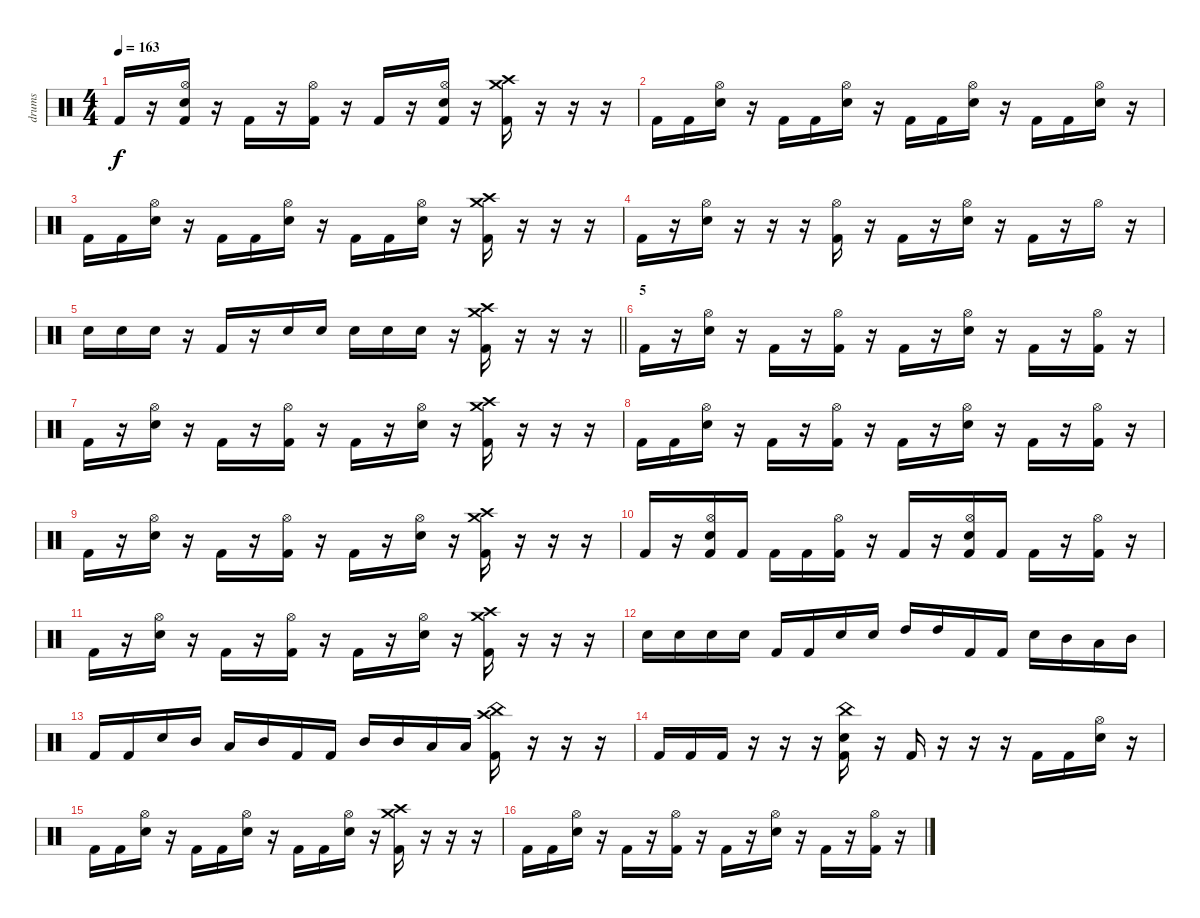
\track ("drums" "drums") {instrument percussion}
\staff {score}
\articulation defaults
\ts (4 4)
\tempo 163
\clef neutral
\ks c "Kick (hit) 2".16{dy f}
r.16 ("Hi-Hat (open)" "Electric Snare (hit)" "Kick (hit) 2").16 r.16 "Kick (hit) 2".16 r.16 ("Hi-Hat (open)" "Kick (hit) 2").16 r.16 "Kick (hit) 2".16 r.16 ("Hi-Hat (open)" "Electric Snare (hit)" "Kick (hit) 2").16 r.16 ("Crash medium (hit)" "Crash high (hit)" "Kick (hit) 2").16 r.16 r.16 r.16 |
"Kick (hit) 2".16 "Kick (hit) 2".16 ("Hi-Hat (open)" "Electric Snare (hit)").16 r.16 "Kick (hit) 2".16 "Kick (hit) 2".16 ("Hi-Hat (open)" "Electric Snare (hit)").16 r.16 "Kick (hit) 2".16 "Kick (hit) 2".16 ("Hi-Hat (open)" "Electric Snare (hit)").16 r.16 "Kick (hit) 2".16 "Kick (hit) 2".16 ("Hi-Hat (open)" "Electric Snare (hit)").16 r.16 |
"Kick (hit) 2".16 "Kick (hit) 2".16 ("Hi-Hat (open)" "Electric Snare (hit)").16 r.16 "Kick (hit) 2".16 "Kick (hit) 2".16 ("Hi-Hat (open)" "Electric Snare (hit)").16 r.16 "Kick (hit) 2".16 "Kick (hit) 2".16 ("Hi-Hat (open)" "Electric Snare (hit)").16 r.16 ("Crash medium (hit)" "Crash high (hit)" "Kick (hit) 2").16 r.16 r.16 r.16 |
"Kick (hit) 2".16 r.16 ("Hi-Hat (open)" "Electric Snare (hit)").16 r.16 r.16 r.16 ("Hi-Hat (open)" "Kick (hit) 2").16 r.16 "Kick (hit) 2".16 r.16 ("Hi-Hat (open)" "Electric Snare (hit)").16 r.16 "Kick (hit) 2".16 r.16 "Hi-Hat (open)".16 r.16 |
\barLineRight lightlight "Electric Snare (hit)".16 "Electric Snare (hit)".16 "Electric Snare (hit)".16
r.16 "Kick (hit) 2".16 r.16 "Electric Snare (hit)".16 "Electric Snare (hit)".16 "Electric Snare (hit)".16 "Electric Snare (hit)".16 "Electric Snare (hit)".16 r.16 ("Crash medium (hit)" "Crash high (hit)" "Kick (hit) 2").16 r.16 r.16 r.16 |
\section ("" "5")
"Kick (hit) 2".16 r.16 ("Hi-Hat (open)" "Electric Snare (hit)").16 r.16 "Kick (hit) 2".16 r.16 ("Hi-Hat (open)" "Kick (hit) 2").16 r.16 "Kick (hit) 2".16 r.16 ("Hi-Hat (open)" "Electric Snare (hit)").16 r.16 "Kick (hit) 2".16 r.16 ("Hi-Hat (open)" "Kick (hit) 2").16 r.16 |
"Kick (hit) 2".16 r.16 ("Hi-Hat (open)" "Electric Snare (hit)").16 r.16 "Kick (hit) 2".16 r.16 ("Hi-Hat (open)" "Kick (hit) 2").16 r.16 "Kick (hit) 2".16 r.16 ("Hi-Hat (open)" "Electric Snare (hit)").16 r.16 ("Crash medium (hit)" "Crash high (hit)" "Kick (hit) 2").16 r.16 r.16 r.16 |
"Kick (hit) 2".16 "Kick (hit) 2".16 ("Hi-Hat (open)" "Electric Snare (hit)").16 r.16 "Kick (hit) 2".16 r.16 ("Hi-Hat (open)" "Kick (hit) 2").16 r.16 "Kick (hit) 2".16 r.16 ("Hi-Hat (open)" "Electric Snare (hit)").16 r.16 "Kick (hit) 2".16 r.16 ("Hi-Hat (open)" "Kick (hit) 2").16 r.16 |
"Kick (hit) 2".16 r.16 ("Hi-Hat (open)" "Electric Snare (hit)").16 r.16 "Kick (hit) 2".16 r.16 ("Hi-Hat (open)" "Kick (hit) 2").16 r.16 "Kick (hit) 2".16 r.16 ("Hi-Hat (open)" "Electric Snare (hit)").16 r.16 ("Crash medium (hit)" "Crash high (hit)" "Kick (hit) 2").16 r.16 r.16 r.16 |
"Kick (hit) 2".16 r.16 ("Hi-Hat (open)" "Electric Snare (hit)" "Kick (hit) 2").16 "Kick (hit) 2".16 "Kick (hit) 2".16 "Kick (hit) 2".16 ("Hi-Hat (open)" "Kick (hit) 2").16 r.16 "Kick (hit) 2".16 r.16 ("Hi-Hat (open)" "Electric Snare (hit)" "Kick (hit) 2").16 "Kick (hit) 2".16 "Kick (hit) 2".16 r.16 ("Hi-Hat (open)" "Kick (hit) 2").16 r.16 |
"Kick (hit) 2".16 r.16 ("Hi-Hat (open)" "Electric Snare (hit)").16 r.16 "Kick (hit) 2".16 r.16 ("Hi-Hat (open)" "Kick (hit) 2").16 r.16 "Kick (hit) 2".16 r.16 ("Hi-Hat (open)" "Electric Snare (hit)").16 r.16 ("Crash medium (hit)" "Crash high (hit)" "Kick (hit) 2").16 r.16 r.16 r.16 |
"Electric Snare (hit)".16 "Electric Snare (hit)".16 "Electric Snare (hit)".16 "Electric Snare (hit)".16 "Kick (hit) 2".16 "Kick (hit) 2".16 "Electric Snare (hit)".16 "Electric Snare (hit)".16 "High Tom (hit)".16 "High Tom (hit)".16 "Kick (hit) 2".16 "Kick (hit) 2".16 "Electric Snare (hit)".16 "Mid Tom (hit)".16 "Low Floor Tom (hit)".16 "Mid Tom (hit)".16 |
"Kick (hit) 2".16 "Kick (hit) 2".16 "Electric Snare (hit)".16 "Mid Tom (hit)".16 "Low Floor Tom (hit)".16 "Mid Tom (hit)".16 "Kick (hit) 2".16 "Kick (hit) 2".16 "Mid Tom (hit)".16 "Mid Tom (hit)".16 "Low Floor Tom (hit)".16 "Low Floor Tom (hit)".16 ("China (hit)" "Crash high (hit)" "Kick (hit) 2").16 r.16 r.16 r.16 |
"Kick (hit) 2".16 "Kick (hit) 2".16 "Kick (hit) 2".16 r.16 r.16 r.16 ("China (hit)" "Electric Snare (hit)" "Kick (hit) 2").16 r.16 "Kick (hit) 2".16 r.16 r.16 r.16 "Kick (hit) 2".16 "Kick (hit) 2".16 ("Hi-Hat (open)" "Electric Snare (hit)").16 r.16 |
"Kick (hit) 2".16 "Kick (hit) 2".16 ("Hi-Hat (open)" "Electric Snare (hit)").16 r.16 "Kick (hit) 2".16 "Kick (hit) 2".16 ("Hi-Hat (open)" "Electric Snare (hit)").16 r.16 "Kick (hit) 2".16 "Kick (hit) 2".16 ("Hi-Hat (open)" "Electric Snare (hit)").16 r.16 ("Crash medium (hit)" "Crash high (hit)" "Kick (hit) 2").16 r.16 r.16 r.16 |
"Kick (hit) 2".16 "Kick (hit) 2".16 ("Hi-Hat (open)" "Electric Snare (hit)").16 r.16 "Kick (hit) 2".16 r.16 ("Hi-Hat (open)" "Kick (hit) 2").16 r.16 "Kick (hit) 2".16 r.16 ("Hi-Hat (open)" "Electric Snare (hit)").16 r.16 "Kick (hit) 2".16 r.16 ("Hi-Hat (open)" "Kick (hit) 2").16 r.16
